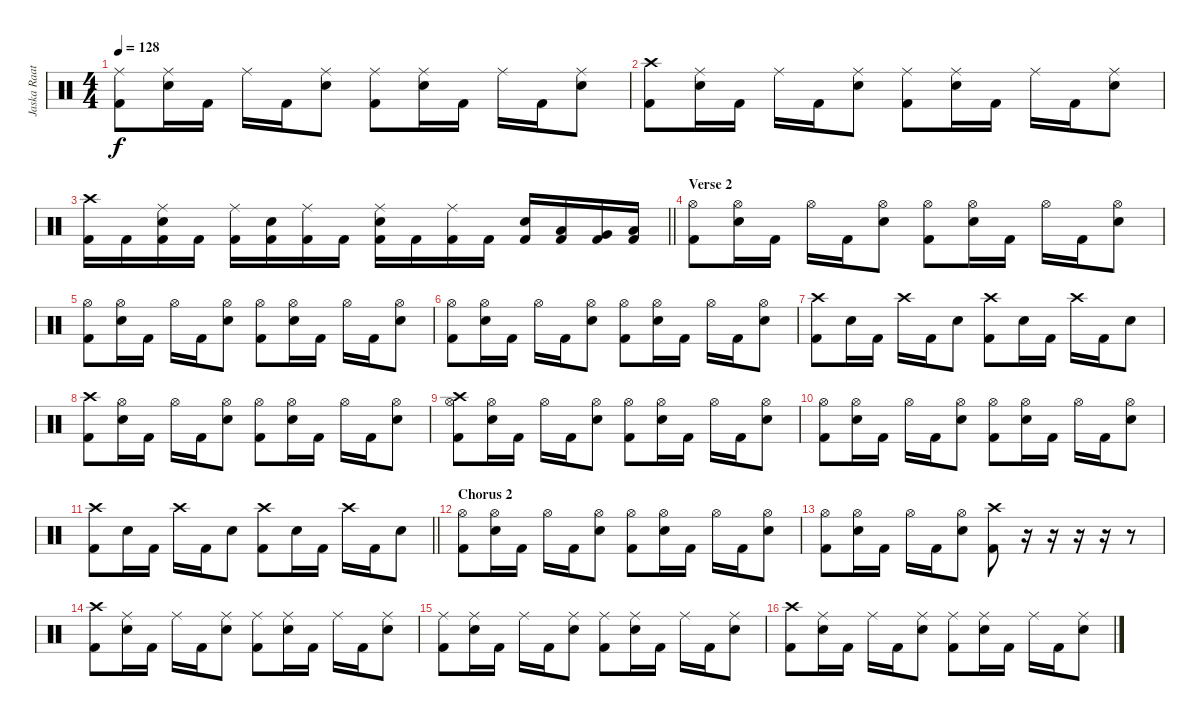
\track ("Jaska Raatikainen" "Jaska Raat") {instrument percussion}
\staff {score}
\articulation defaults
\ts (4 4)
\tempo 128
\clef neutral
\ks c
("Ride (middle)" "Kick (hit) 2").8{dy f} ("Ride (middle)" "Electric Snare (hit)").16 "Kick (hit) 2".16 "Ride (middle)".16 "Kick (hit) 2".16 ("Ride (middle)" "Electric Snare (hit)").8 ("Ride (middle)" "Kick (hit) 2").8 ("Ride (middle)" "Electric Snare (hit)").16 "Kick (hit) 2".16 "Ride (middle)".16 "Kick (hit) 2".16 ("Ride (middle)" "Electric Snare (hit)").8 |
("Crash high (hit)" "Kick (hit) 2").8 ("Ride (middle)" "Electric Snare (hit)").16 "Kick (hit) 2".16 "Ride (middle)".16 "Kick (hit) 2".16 ("Ride (middle)" "Electric Snare (hit)").8 ("Ride (middle)" "Kick (hit) 2").8 ("Ride (middle)" "Electric Snare (hit)").16 "Kick (hit) 2".16 "Ride (middle)".16 "Kick (hit) 2".16 ("Ride (middle)" "Electric Snare (hit)").8 |
\barLineRight lightlight
("Crash high (hit)" "Kick (hit) 2").16 "Kick (hit) 2".16 ("Ride (middle)" "Electric Snare (hit)" "Kick (hit) 2").16 "Kick (hit) 2".16 ("Ride (middle)" "Kick (hit) 2").16 ("Electric Snare (hit)" "Kick (hit) 2").16 ("Ride (middle)" "Kick (hit) 2").16 "Kick (hit) 2".16 ("Ride (middle)" "Electric Snare (hit)" "Kick (hit) 2").16 "Kick (hit) 2".16 ("Ride (middle)" "Kick (hit) 2").16 "Kick (hit) 2".16 ("Electric Snare (hit)" "Kick (hit) 2").16 ("Low Tom (hit)" "Kick (hit) 2").16 ("Very Low Tom (hit)" "Kick (hit) 2").16 ("Low Floor Tom (hit)" "Kick (hit) 2").16 |
\section ("" "Verse 2")
("Hi-Hat (open)" "Kick (hit) 2").8 ("Hi-Hat (open)" "Electric Snare (hit)").16 "Kick (hit) 2".16 "Hi-Hat (open)".16 "Kick (hit) 2".16 ("Hi-Hat (open)" "Electric Snare (hit)").8 ("Hi-Hat (open)" "Kick (hit) 2").8 ("Hi-Hat (open)" "Electric Snare (hit)").16 "Kick (hit) 2".16 "Hi-Hat (open)".16 "Kick (hit) 2".16 ("Hi-Hat (open)" "Electric Snare (hit)").8 |
("Hi-Hat (open)" "Kick (hit) 2").8 ("Hi-Hat (open)" "Electric Snare (hit)").16 "Kick (hit) 2".16 "Hi-Hat (open)".16 "Kick (hit) 2".16 ("Hi-Hat (open)" "Electric Snare (hit)").8 ("Hi-Hat (open)" "Kick (hit) 2").8 ("Hi-Hat (open)" "Electric Snare (hit)").16 "Kick (hit) 2".16 "Hi-Hat (open)".16 "Kick (hit) 2".16 ("Hi-Hat (open)" "Electric Snare (hit)").8 |
("Hi-Hat (open)" "Kick (hit) 2").8 ("Hi-Hat (open)" "Electric Snare (hit)").16 "Kick (hit) 2".16 "Hi-Hat (open)".16 "Kick (hit) 2".16 ("Hi-Hat (open)" "Electric Snare (hit)").8 ("Hi-Hat (open)" "Kick (hit) 2").8 ("Hi-Hat (open)" "Electric Snare (hit)").16 "Kick (hit) 2".16 "Hi-Hat (open)".16 "Kick (hit) 2".16 ("Hi-Hat (open)" "Electric Snare (hit)").8 |
("Crash high (hit)" "Kick (hit) 2").8 "Electric Snare (hit)".16 "Kick (hit) 2".16 "Crash high (hit)".16 "Kick (hit) 2".16 "Electric Snare (hit)".8 ("Crash high (hit)" "Kick (hit) 2").8 "Electric Snare (hit)".16 "Kick (hit) 2".16 "Crash high (hit)".16 "Kick (hit) 2".16 "Electric Snare (hit)".8 |
("Crash high (hit)" "Kick (hit) 2").8 ("Hi-Hat (open)" "Electric Snare (hit)").16 "Kick (hit) 2".16 "Hi-Hat (open)".16 "Kick (hit) 2".16 ("Hi-Hat (open)" "Electric Snare (hit)").8 ("Hi-Hat (open)" "Kick (hit) 2").8 ("Hi-Hat (open)" "Electric Snare (hit)").16 "Kick (hit) 2".16 "Hi-Hat (open)".16 "Kick (hit) 2".16 ("Hi-Hat (open)" "Electric Snare (hit)").8 |
("Crash high (hit)" "Hi-Hat (open)" "Kick (hit) 2").8 ("Hi-Hat (open)" "Electric Snare (hit)").16 "Kick (hit) 2".16 "Hi-Hat (open)".16 "Kick (hit) 2".16 ("Hi-Hat (open)" "Electric Snare (hit)").8 ("Hi-Hat (open)" "Kick (hit) 2").8 ("Hi-Hat (open)" "Electric Snare (hit)").16 "Kick (hit) 2".16 "Hi-Hat (open)".16 "Kick (hit) 2".16 ("Hi-Hat (open)" "Electric Snare (hit)").8 |
("Hi-Hat (open)" "Kick (hit) 2").8 ("Hi-Hat (open)" "Electric Snare (hit)").16 "Kick (hit) 2".16 "Hi-Hat (open)".16 "Kick (hit) 2".16 ("Hi-Hat (open)" "Electric Snare (hit)").8 ("Hi-Hat (open)" "Kick (hit) 2").8 ("Hi-Hat (open)" "Electric Snare (hit)").16 "Kick (hit) 2".16 "Hi-Hat (open)".16 "Kick (hit) 2".16 ("Hi-Hat (open)" "Electric Snare (hit)").8 |
\barLineRight lightlight
("Crash high (hit)" "Kick (hit) 2").8 "Electric Snare (hit)".16 "Kick (hit) 2".16 "Crash high (hit)".16 "Kick (hit) 2".16 "Electric Snare (hit)".8 ("Crash high (hit)" "Kick (hit) 2").8 "Electric Snare (hit)".16 "Kick (hit) 2".16 "Crash high (hit)".16 "Kick (hit) 2".16 "Electric Snare (hit)".8 |
\section ("" "Chorus 2")
("Hi-Hat (open)" "Kick (hit) 2").8 ("Hi-Hat (open)" "Electric Snare (hit)").16 "Kick (hit) 2".16 "Hi-Hat (open)".16 "Kick (hit) 2".16 ("Hi-Hat (open)" "Electric Snare (hit)").8 ("Hi-Hat (open)" "Kick (hit) 2").8 ("Hi-Hat (open)" "Electric Snare (hit)").16 "Kick (hit) 2".16 "Hi-Hat (open)".16 "Kick (hit) 2".16 ("Hi-Hat (open)" "Electric Snare (hit)").8 |
("Hi-Hat (open)" "Kick (hit) 2").8 ("Hi-Hat (open)" "Electric Snare (hit)").16 "Kick (hit) 2".16 "Hi-Hat (open)".16 "Kick (hit) 2".16 ("Hi-Hat (open)" "Electric Snare (hit)").8 ("Crash high (hit)" "Kick (hit) 2").8 r.16 r.16 r.16 r.16 r.8 |
("Crash high (hit)" "Kick (hit) 2").8 ("Ride (middle)" "Electric Snare (hit)").16 "Kick (hit) 2".16 "Ride (middle)".16 "Kick (hit) 2".16 ("Ride (middle)" "Electric Snare (hit)").8 ("Ride (middle)" "Kick (hit) 2").8 ("Ride (middle)" "Electric Snare (hit)").16 "Kick (hit) 2".16 "Ride (middle)".16 "Kick (hit) 2".16 ("Ride (middle)" "Electric Snare (hit)").8 |
("Ride (middle)" "Kick (hit) 2").8 ("Ride (middle)" "Electric Snare (hit)").16 "Kick (hit) 2".16 "Ride (middle)".16 "Kick (hit) 2".16 ("Ride (middle)" "Electric Snare (hit)").8 ("Ride (middle)" "Kick (hit) 2").8 ("Ride (middle)" "Electric Snare (hit)").16 "Kick (hit) 2".16 "Ride (middle)".16 "Kick (hit) 2".16 ("Ride (middle)" "Electric Snare (hit)").8 |
("Crash high (hit)" "Kick (hit) 2").8 ("Ride (middle)" "Electric Snare (hit)").16 "Kick (hit) 2".16 "Ride (middle)".16 "Kick (hit) 2".16 ("Ride (middle)" "Electric Snare (hit)").8 ("Ride (middle)" "Kick (hit) 2").8 ("Ride (middle)" "Electric Snare (hit)").16 "Kick (hit) 2".16 "Ride (middle)".16 "Kick (hit) 2".16 ("Ride (middle)" "Electric Snare (hit)").8
